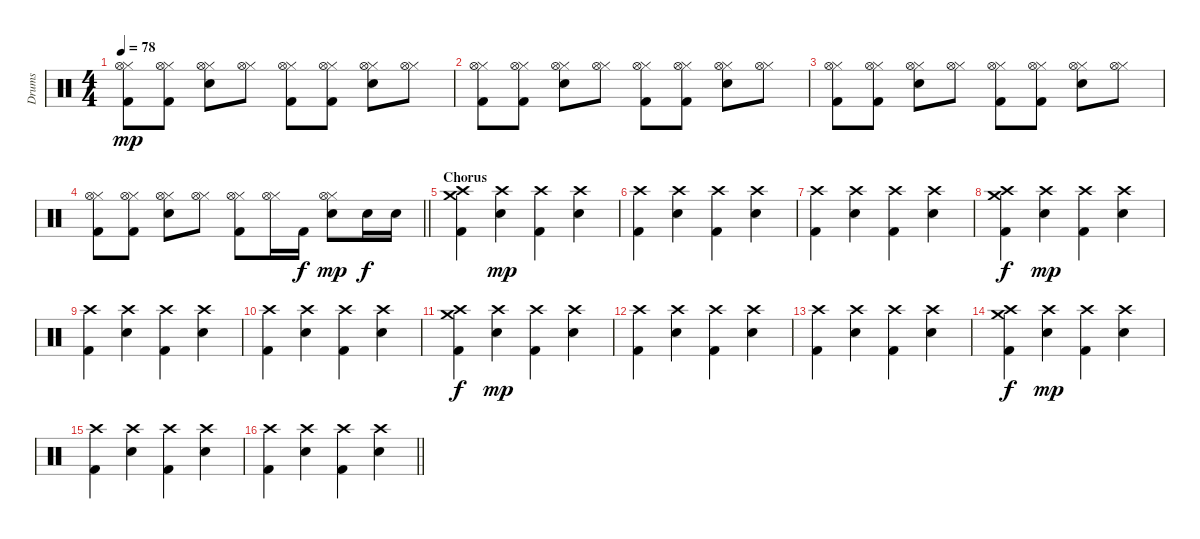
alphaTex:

\track ("Drums" "Drums") {instrument percussion}
\staff {score}
\articulation defaults
\ts (4 4)
\tempo 78
\clef neutral
\ks c
("Kick (hit) 2" "Hi-Hat (closed)" "Hi-Hat (open)").8{dy mp} ("Kick (hit) 2" "Hi-Hat (closed)" "Hi-Hat (open)").8 ("Snare (hit) 2" "Hi-Hat (closed)" "Hi-Hat (open)").8 ("Hi-Hat (closed)" "Hi-Hat (open)").8 ("Kick (hit) 2" "Hi-Hat (closed)" "Hi-Hat (open)").8 ("Kick (hit) 2" "Hi-Hat (closed)" "Hi-Hat (open)").8 ("Snare (hit) 2" "Hi-Hat (closed)" "Hi-Hat (open)").8 ("Hi-Hat (closed)" "Hi-Hat (open)").8 |
("Kick (hit) 2" "Hi-Hat (closed)" "Hi-Hat (open)").8 ("Kick (hit) 2" "Hi-Hat (closed)" "Hi-Hat (open)").8 ("Snare (hit) 2" "Hi-Hat (closed)" "Hi-Hat (open)").8 ("Hi-Hat (closed)" "Hi-Hat (open)").8 ("Kick (hit) 2" "Hi-Hat (closed)" "Hi-Hat (open)").8 ("Kick (hit) 2" "Hi-Hat (closed)" "Hi-Hat (open)").8 ("Snare (hit) 2" "Hi-Hat (closed)" "Hi-Hat (open)").8 ("Hi-Hat (closed)" "Hi-Hat (open)").8 |
("Kick (hit) 2" "Hi-Hat (closed)" "Hi-Hat (open)").8 ("Kick (hit) 2" "Hi-Hat (closed)" "Hi-Hat (open)").8 ("Snare (hit) 2" "Hi-Hat (closed)" "Hi-Hat (open)").8 ("Hi-Hat (closed)" "Hi-Hat (open)").8 ("Kick (hit) 2" "Hi-Hat (closed)" "Hi-Hat (open)").8 ("Kick (hit) 2" "Hi-Hat (closed)" "Hi-Hat (open)").8 ("Snare (hit) 2" "Hi-Hat (closed)" "Hi-Hat (open)").8 ("Hi-Hat (closed)" "Hi-Hat (open)").8 |
\barLineRight lightlight
("Kick (hit) 2" "Hi-Hat (closed)" "Hi-Hat (open)").8 ("Kick (hit) 2" "Hi-Hat (closed)" "Hi-Hat (open)").8 ("Snare (hit) 2" "Hi-Hat (closed)" "Hi-Hat (open)").8 ("Hi-Hat (closed)" "Hi-Hat (open)").8 ("Kick (hit) 2" "Hi-Hat (closed)" "Hi-Hat (open)").8 ("Hi-Hat (closed)" "Hi-Hat (open)").16 "Kick (hit) 2".16{dy f} ("Snare (hit) 2" "Hi-Hat (closed)" "Hi-Hat (open)").8{dy mp} "Snare (hit) 2".16{dy f} "Snare (hit) 2".16 |
\section ("" "Chorus")
("Kick (hit) 2" "Crash high (hit)" "Crash medium (hit)").4 ("Snare (hit) 2" "Crash high (hit)").4{dy mp} ("Kick (hit) 2" "Crash high (hit)").4 ("Snare (hit) 2" "Crash high (hit)").4 |
("Kick (hit) 2" "Crash high (hit)").4 ("Snare (hit) 2" "Crash high (hit)").4 ("Kick (hit) 2" "Crash high (hit)").4 ("Snare (hit) 2" "Crash high (hit)").4 |
("Kick (hit) 2" "Crash high (hit)").4 ("Snare (hit) 2" "Crash high (hit)").4 ("Kick (hit) 2" "Crash high (hit)").4 ("Snare (hit) 2" "Crash high (hit)").4 |
("Kick (hit) 2" "Crash high (hit)" "Crash medium (hit)").4{dy f} ("Snare (hit) 2" "Crash high (hit)").4{dy mp} ("Kick (hit) 2" "Crash high (hit)").4 ("Snare (hit) 2" "Crash high (hit)").4 |
("Kick (hit) 2" "Crash high (hit)").4 ("Snare (hit) 2" "Crash high (hit)").4 ("Kick (hit) 2" "Crash high (hit)").4 ("Snare (hit) 2" "Crash high (hit)").4 |
("Kick (hit) 2" "Crash high (hit)").4 ("Snare (hit) 2" "Crash high (hit)").4 ("Kick (hit) 2" "Crash high (hit)").4 ("Snare (hit) 2" "Crash high (hit)").4 |
("Kick (hit) 2" "Crash high (hit)" "Crash medium (hit)").4{dy f} ("Snare (hit) 2" "Crash high (hit)").4{dy mp} ("Kick (hit) 2" "Crash high (hit)").4 ("Snare (hit) 2" "Crash high (hit)").4 |
("Kick (hit) 2" "Crash high (hit)").4 ("Snare (hit) 2" "Crash high (hit)").4 ("Kick (hit) 2" "Crash high (hit)").4 ("Snare (hit) 2" "Crash high (hit)").4 |
("Kick (hit) 2" "Crash high (hit)").4 ("Snare (hit) 2" "Crash high (hit)").4 ("Kick (hit) 2" "Crash high (hit)").4 ("Snare (hit) 2" "Crash high (hit)").4 |
("Kick (hit) 2" "Crash high (hit)" "Crash medium (hit)").4{dy f} ("Snare (hit) 2" "Crash high (hit)").4{dy mp} ("Kick (hit) 2" "Crash high (hit)").4 ("Snare (hit) 2" "Crash high (hit)").4 |
("Kick (hit) 2" "Crash high (hit)").4 ("Snare (hit) 2" "Crash high (hit)").4 ("Kick (hit) 2" "Crash high (hit)").4 ("Snare (hit) 2" "Crash high (hit)").4 |
\barLineRight lightlight
("Kick (hit) 2" "Crash high (hit)").4 ("Snare (hit) 2" "Crash high (hit)").4 ("Kick (hit) 2" "Crash high (hit)").4 ("Snare (hit) 2" "Crash high (hit)").4
